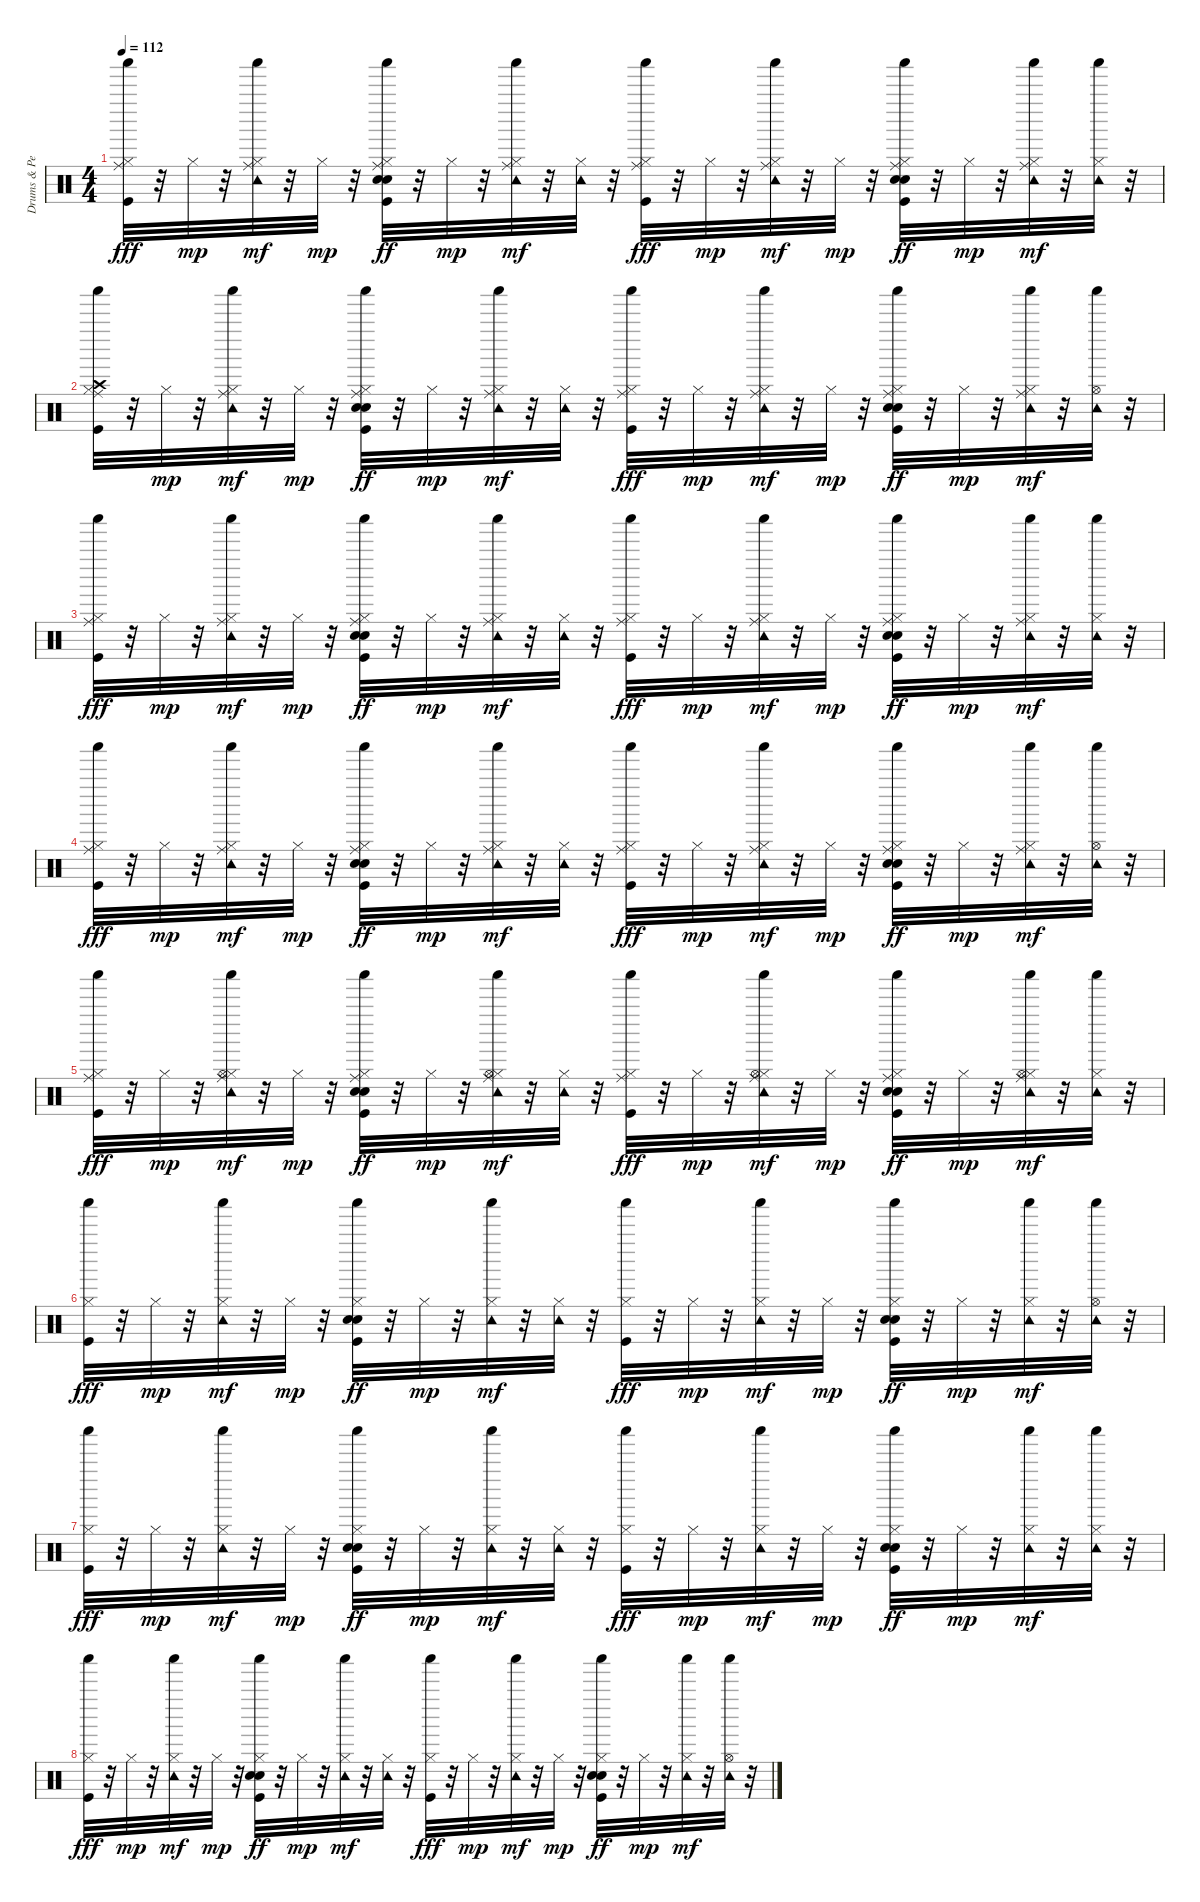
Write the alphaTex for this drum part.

\track ("Drums & Percussion" "Drums & Pe") {instrument percussion}
\staff {score}
\articulation defaults
\ts (4 4)
\tempo 112
\clef neutral
\ks c
("Shaker (hit)" "Hi-Hat (closed)" "Ride (middle)" "Kick (hit)").32{dy fff} r.32 "Hi-Hat (closed)".32{dy mp} r.32 ("Shaker (hit)" "Hi-Hat (closed)" "Ride (middle)" "Tambourine (hit)").32{dy mf} r.32 "Hi-Hat (closed)".32{dy mp} r.32 ("Shaker (hit)" "Snare (hit) 2" "Hi-Hat (closed)" "Ride (middle)" "Hand Clap (hit)" "Kick (hit)").32{dy ff} r.32 "Hi-Hat (closed)".32{dy mp} r.32 ("Shaker (hit)" "Hi-Hat (closed)" "Ride (middle)" "Tambourine (hit)").32{dy mf} r.32 ("Hi-Hat (closed)" "Tambourine (hit)").32 r.32 ("Shaker (hit)" "Hi-Hat (closed)" "Ride (middle)" "Kick (hit)").32{dy fff} r.32 "Hi-Hat (closed)".32{dy mp} r.32 ("Shaker (hit)" "Hi-Hat (closed)" "Ride (middle)" "Tambourine (hit)").32{dy mf} r.32 "Hi-Hat (closed)".32{dy mp} r.32 ("Shaker (hit)" "Snare (hit) 2" "Hi-Hat (closed)" "Ride (middle)" "Hand Clap (hit)" "Kick (hit)").32{dy ff} r.32 "Hi-Hat (closed)".32{dy mp} r.32 ("Shaker (hit)" "Hi-Hat (closed)" "Ride (middle)" "Tambourine (hit)").32{dy mf} r.32 ("Shaker (hit)" "Hi-Hat (closed)" "Tambourine (hit)").32 r.32 |
("Shaker (hit)" "Hi-Hat (closed)" "Ride (middle)" "Crash high (hit)" "Kick (hit)").32 r.32 "Hi-Hat (closed)".32{dy mp} r.32 ("Shaker (hit)" "Hi-Hat (closed)" "Ride (middle)" "Tambourine (hit)").32{dy mf} r.32 "Hi-Hat (closed)".32{dy mp} r.32 ("Shaker (hit)" "Snare (hit) 2" "Hi-Hat (closed)" "Ride (middle)" "Hand Clap (hit)" "Kick (hit)").32{dy ff} r.32 "Hi-Hat (closed)".32{dy mp} r.32 ("Shaker (hit)" "Hi-Hat (closed)" "Ride (middle)" "Tambourine (hit)").32{dy mf} r.32 ("Hi-Hat (closed)" "Tambourine (hit)").32 r.32 ("Shaker (hit)" "Hi-Hat (closed)" "Ride (middle)" "Kick (hit)").32{dy fff} r.32 "Hi-Hat (closed)".32{dy mp} r.32 ("Shaker (hit)" "Hi-Hat (closed)" "Ride (middle)" "Tambourine (hit)").32{dy mf} r.32 "Hi-Hat (closed)".32{dy mp} r.32 ("Shaker (hit)" "Snare (hit) 2" "Hi-Hat (closed)" "Ride (middle)" "Hand Clap (hit)" "Kick (hit)").32{dy ff} r.32 "Hi-Hat (closed)".32{dy mp} r.32 ("Shaker (hit)" "Hi-Hat (closed)" "Ride (middle)" "Tambourine (hit)").32{dy mf} r.32 ("Hi-Hat (open)" "Shaker (hit)" "Tambourine (hit)").32 r.32 |
("Shaker (hit)" "Hi-Hat (closed)" "Ride (middle)" "Kick (hit)").32{dy fff} r.32 "Hi-Hat (closed)".32{dy mp} r.32 ("Shaker (hit)" "Hi-Hat (closed)" "Ride (middle)" "Tambourine (hit)").32{dy mf} r.32 "Hi-Hat (closed)".32{dy mp} r.32 ("Shaker (hit)" "Snare (hit) 2" "Hi-Hat (closed)" "Ride (middle)" "Hand Clap (hit)" "Kick (hit)").32{dy ff} r.32 "Hi-Hat (closed)".32{dy mp} r.32 ("Shaker (hit)" "Hi-Hat (closed)" "Ride (middle)" "Tambourine (hit)").32{dy mf} r.32 ("Hi-Hat (closed)" "Tambourine (hit)").32 r.32 ("Shaker (hit)" "Hi-Hat (closed)" "Ride (middle)" "Kick (hit)").32{dy fff} r.32 "Hi-Hat (closed)".32{dy mp} r.32 ("Shaker (hit)" "Hi-Hat (closed)" "Ride (middle)" "Tambourine (hit)").32{dy mf} r.32 "Hi-Hat (closed)".32{dy mp} r.32 ("Shaker (hit)" "Snare (hit) 2" "Hi-Hat (closed)" "Ride (middle)" "Hand Clap (hit)" "Kick (hit)").32{dy ff} r.32 "Hi-Hat (closed)".32{dy mp} r.32 ("Shaker (hit)" "Hi-Hat (closed)" "Ride (middle)" "Tambourine (hit)").32{dy mf} r.32 ("Shaker (hit)" "Hi-Hat (closed)" "Tambourine (hit)").32 r.32 |
("Shaker (hit)" "Hi-Hat (closed)" "Ride (middle)" "Kick (hit)").32{dy fff} r.32 "Hi-Hat (closed)".32{dy mp} r.32 ("Shaker (hit)" "Hi-Hat (closed)" "Ride (middle)" "Tambourine (hit)").32{dy mf} r.32 "Hi-Hat (closed)".32{dy mp} r.32 ("Shaker (hit)" "Snare (hit) 2" "Hi-Hat (closed)" "Ride (middle)" "Hand Clap (hit)" "Kick (hit)").32{dy ff} r.32 "Hi-Hat (closed)".32{dy mp} r.32 ("Shaker (hit)" "Hi-Hat (closed)" "Ride (middle)" "Tambourine (hit)").32{dy mf} r.32 ("Hi-Hat (closed)" "Tambourine (hit)").32 r.32 ("Shaker (hit)" "Hi-Hat (closed)" "Ride (middle)" "Kick (hit)").32{dy fff} r.32 "Hi-Hat (closed)".32{dy mp} r.32 ("Shaker (hit)" "Hi-Hat (closed)" "Ride (middle)" "Tambourine (hit)").32{dy mf} r.32 "Hi-Hat (closed)".32{dy mp} r.32 ("Shaker (hit)" "Snare (hit) 2" "Hi-Hat (closed)" "Ride (middle)" "Hand Clap (hit)" "Kick (hit)").32{dy ff} r.32 "Hi-Hat (closed)".32{dy mp} r.32 ("Shaker (hit)" "Hi-Hat (closed)" "Ride (middle)" "Tambourine (hit)").32{dy mf} r.32 ("Hi-Hat (open)" "Shaker (hit)" "Tambourine (hit)").32 r.32 |
("Shaker (hit)" "Hi-Hat (closed)" "Ride (middle)" "Kick (hit)").32{dy fff} r.32 "Hi-Hat (closed)".32{dy mp} r.32 ("Shaker (hit)" "Hi-Hat (closed)" "Hi-Hat (open)" "Ride (middle)" "Tambourine (hit)").32{dy mf} r.32 "Hi-Hat (closed)".32{dy mp} r.32 ("Shaker (hit)" "Snare (hit) 2" "Hi-Hat (closed)" "Ride (middle)" "Hand Clap (hit)" "Kick (hit)").32{dy ff} r.32 "Hi-Hat (closed)".32{dy mp} r.32 ("Shaker (hit)" "Hi-Hat (closed)" "Hi-Hat (open)" "Ride (middle)" "Tambourine (hit)").32{dy mf} r.32 ("Hi-Hat (closed)" "Tambourine (hit)").32 r.32 ("Shaker (hit)" "Hi-Hat (closed)" "Ride (middle)" "Kick (hit)").32{dy fff} r.32 "Hi-Hat (closed)".32{dy mp} r.32 ("Shaker (hit)" "Hi-Hat (closed)" "Hi-Hat (open)" "Ride (middle)" "Tambourine (hit)").32{dy mf} r.32 "Hi-Hat (closed)".32{dy mp} r.32 ("Shaker (hit)" "Snare (hit) 2" "Hi-Hat (closed)" "Ride (middle)" "Hand Clap (hit)" "Kick (hit)").32{dy ff} r.32 "Hi-Hat (closed)".32{dy mp} r.32 ("Shaker (hit)" "Hi-Hat (closed)" "Hi-Hat (open)" "Ride (middle)" "Tambourine (hit)").32{dy mf} r.32 ("Shaker (hit)" "Hi-Hat (closed)" "Tambourine (hit)").32 r.32 |
("Shaker (hit)" "Hi-Hat (closed)" "Kick (hit)").32{dy fff} r.32 "Hi-Hat (closed)".32{dy mp} r.32 ("Shaker (hit)" "Hi-Hat (closed)" "Tambourine (hit)").32{dy mf} r.32 "Hi-Hat (closed)".32{dy mp} r.32 ("Shaker (hit)" "Snare (hit) 2" "Hi-Hat (closed)" "Hand Clap (hit)" "Kick (hit)").32{dy ff} r.32 "Hi-Hat (closed)".32{dy mp} r.32 ("Shaker (hit)" "Hi-Hat (closed)" "Tambourine (hit)").32{dy mf} r.32 ("Hi-Hat (closed)" "Tambourine (hit)").32 r.32 ("Shaker (hit)" "Hi-Hat (closed)" "Kick (hit)").32{dy fff} r.32 "Hi-Hat (closed)".32{dy mp} r.32 ("Shaker (hit)" "Hi-Hat (closed)" "Tambourine (hit)").32{dy mf} r.32 "Hi-Hat (closed)".32{dy mp} r.32 ("Shaker (hit)" "Snare (hit) 2" "Hi-Hat (closed)" "Hand Clap (hit)" "Kick (hit)").32{dy ff} r.32 "Hi-Hat (closed)".32{dy mp} r.32 ("Shaker (hit)" "Hi-Hat (closed)" "Tambourine (hit)").32{dy mf} r.32 ("Hi-Hat (open)" "Shaker (hit)" "Tambourine (hit)").32 r.32 |
("Shaker (hit)" "Hi-Hat (closed)" "Kick (hit)").32{dy fff} r.32 "Hi-Hat (closed)".32{dy mp} r.32 ("Shaker (hit)" "Hi-Hat (closed)" "Tambourine (hit)").32{dy mf} r.32 "Hi-Hat (closed)".32{dy mp} r.32 ("Shaker (hit)" "Snare (hit) 2" "Hi-Hat (closed)" "Hand Clap (hit)" "Kick (hit)").32{dy ff} r.32 "Hi-Hat (closed)".32{dy mp} r.32 ("Shaker (hit)" "Hi-Hat (closed)" "Tambourine (hit)").32{dy mf} r.32 ("Hi-Hat (closed)" "Tambourine (hit)").32 r.32 ("Shaker (hit)" "Hi-Hat (closed)" "Kick (hit)").32{dy fff} r.32 "Hi-Hat (closed)".32{dy mp} r.32 ("Shaker (hit)" "Hi-Hat (closed)" "Tambourine (hit)").32{dy mf} r.32 "Hi-Hat (closed)".32{dy mp} r.32 ("Shaker (hit)" "Snare (hit) 2" "Hi-Hat (closed)" "Hand Clap (hit)" "Kick (hit)").32{dy ff} r.32 "Hi-Hat (closed)".32{dy mp} r.32 ("Shaker (hit)" "Hi-Hat (closed)" "Tambourine (hit)").32{dy mf} r.32 ("Shaker (hit)" "Hi-Hat (closed)" "Tambourine (hit)").32 r.32 |
("Shaker (hit)" "Hi-Hat (closed)" "Kick (hit)").32{dy fff} r.32 "Hi-Hat (closed)".32{dy mp} r.32 ("Shaker (hit)" "Hi-Hat (closed)" "Tambourine (hit)").32{dy mf} r.32 "Hi-Hat (closed)".32{dy mp} r.32 ("Shaker (hit)" "Snare (hit) 2" "Hi-Hat (closed)" "Hand Clap (hit)" "Kick (hit)").32{dy ff} r.32 "Hi-Hat (closed)".32{dy mp} r.32 ("Shaker (hit)" "Hi-Hat (closed)" "Tambourine (hit)").32{dy mf} r.32 ("Hi-Hat (closed)" "Tambourine (hit)").32 r.32 ("Shaker (hit)" "Hi-Hat (closed)" "Kick (hit)").32{dy fff} r.32 "Hi-Hat (closed)".32{dy mp} r.32 ("Shaker (hit)" "Hi-Hat (closed)" "Tambourine (hit)").32{dy mf} r.32 "Hi-Hat (closed)".32{dy mp} r.32 ("Shaker (hit)" "Snare (hit) 2" "Hi-Hat (closed)" "Hand Clap (hit)" "Kick (hit)").32{dy ff} r.32 "Hi-Hat (closed)".32{dy mp} r.32 ("Shaker (hit)" "Hi-Hat (closed)" "Tambourine (hit)").32{dy mf} r.32 ("Hi-Hat (open)" "Shaker (hit)" "Tambourine (hit)").32 r.32
